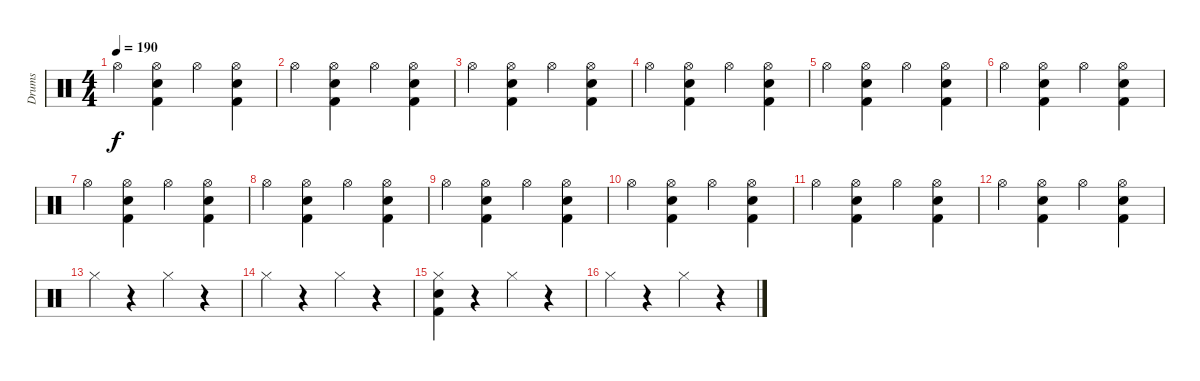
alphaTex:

\track ("Drums" "Drums") {instrument percussion}
\staff {score}
\articulation defaults
\ts (4 4)
\tempo 190
\clef neutral
\ks c "Hi-Hat (open)".4{dy f}
("Hi-Hat (open)" "Snare (hit) 2" "Kick (hit) 2").4 "Hi-Hat (open)".4 ("Hi-Hat (open)" "Snare (hit) 2" "Kick (hit) 2").4 |
"Hi-Hat (open)".4 ("Hi-Hat (open)" "Snare (hit) 2" "Kick (hit) 2").4 "Hi-Hat (open)".4 ("Hi-Hat (open)" "Snare (hit) 2" "Kick (hit) 2").4 |
"Hi-Hat (open)".4 ("Hi-Hat (open)" "Snare (hit) 2" "Kick (hit) 2").4 "Hi-Hat (open)".4 ("Hi-Hat (open)" "Snare (hit) 2" "Kick (hit) 2").4 |
"Hi-Hat (open)".4 ("Hi-Hat (open)" "Snare (hit) 2" "Kick (hit) 2").4 "Hi-Hat (open)".4 ("Hi-Hat (open)" "Snare (hit) 2" "Kick (hit) 2").4 |
"Hi-Hat (open)".4 ("Hi-Hat (open)" "Snare (hit) 2" "Kick (hit) 2").4 "Hi-Hat (open)".4 ("Hi-Hat (open)" "Snare (hit) 2" "Kick (hit) 2").4 |
"Hi-Hat (open)".4 ("Hi-Hat (open)" "Snare (hit) 2" "Kick (hit) 2").4 "Hi-Hat (open)".4 ("Hi-Hat (open)" "Snare (hit) 2" "Kick (hit) 2").4 |
"Hi-Hat (open)".4 ("Hi-Hat (open)" "Snare (hit) 2" "Kick (hit) 2").4 "Hi-Hat (open)".4 ("Hi-Hat (open)" "Snare (hit) 2" "Kick (hit) 2").4 |
"Hi-Hat (open)".4 ("Hi-Hat (open)" "Snare (hit) 2" "Kick (hit) 2").4 "Hi-Hat (open)".4 ("Hi-Hat (open)" "Snare (hit) 2" "Kick (hit) 2").4 |
"Hi-Hat (open)".4 ("Hi-Hat (open)" "Snare (hit) 2" "Kick (hit) 2").4 "Hi-Hat (open)".4 ("Hi-Hat (open)" "Snare (hit) 2" "Kick (hit) 2").4 |
"Hi-Hat (open)".4 ("Hi-Hat (open)" "Snare (hit) 2" "Kick (hit) 2").4 "Hi-Hat (open)".4 ("Hi-Hat (open)" "Snare (hit) 2" "Kick (hit) 2").4 |
"Hi-Hat (open)".4 ("Hi-Hat (open)" "Snare (hit) 2" "Kick (hit) 2").4 "Hi-Hat (open)".4 ("Hi-Hat (open)" "Snare (hit) 2" "Kick (hit) 2").4 |
"Hi-Hat (open)".4 ("Hi-Hat (open)" "Snare (hit) 2" "Kick (hit) 2").4 "Hi-Hat (open)".4 ("Hi-Hat (open)" "Snare (hit) 2" "Kick (hit) 2").4 |
"Hi-Hat (closed)".4 r.4 "Hi-Hat (closed)".4 r.4 |
"Hi-Hat (closed)".4 r.4 "Hi-Hat (closed)".4 r.4 |
("Hi-Hat (closed)" "Snare (hit) 2" "Kick (hit) 2").4 r.4 "Hi-Hat (closed)".4 r.4 |
"Hi-Hat (closed)".4 r.4 "Hi-Hat (closed)".4 r.4
